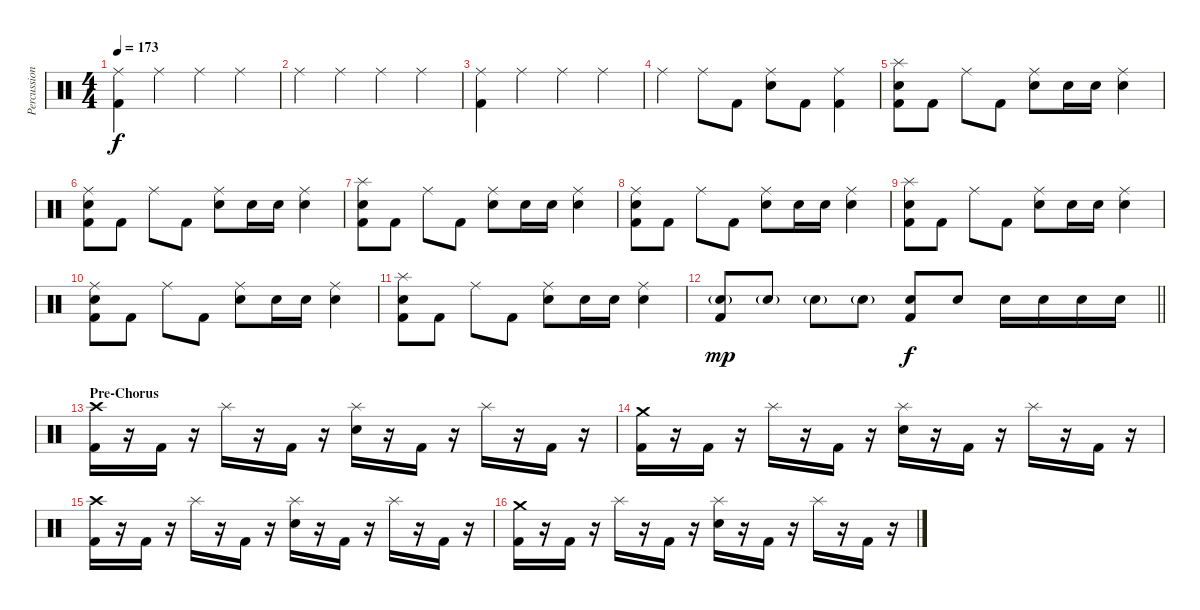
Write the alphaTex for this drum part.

\track ("Percussion" "Percussion") {instrument percussion}
\staff {score}
\articulation defaults
\ts (4 4)
\tempo 173
\clef neutral
\ks c
("Ride (middle)" "Kick (hit) 2").4{dy f} "Ride (middle)".4 "Ride (middle)".4 "Ride (middle)".4 |
"Ride (middle)".4 "Ride (middle)".4 "Ride (middle)".4 "Ride (middle)".4 |
("Ride (middle)" "Kick (hit) 2").4 "Ride (middle)".4 "Ride (middle)".4 "Ride (middle)".4 |
"Ride (middle)".4 "Ride (middle)".8 "Kick (hit) 2".8 ("Ride (middle)" "Electric Snare (hit)").8 "Kick (hit) 2".8 ("Ride (middle)" "Kick (hit) 2").4 |
("Splash (hit)" "Electric Snare (hit)" "Kick (hit) 2").8 "Kick (hit) 2".8 "Ride (middle)".8 "Kick (hit) 2".8 ("Ride (middle)" "Electric Snare (hit)").8 "Electric Snare (hit)".16 "Electric Snare (hit)".16 ("Ride (middle)" "Electric Snare (hit)").4 |
("Ride (middle)" "Electric Snare (hit)" "Kick (hit) 2").8 "Kick (hit) 2".8 "Ride (middle)".8 "Kick (hit) 2".8 ("Ride (middle)" "Electric Snare (hit)").8 "Electric Snare (hit)".16 "Electric Snare (hit)".16 ("Ride (middle)" "Electric Snare (hit)").4 |
("Splash (hit)" "Electric Snare (hit)" "Kick (hit) 2").8 "Kick (hit) 2".8 "Ride (middle)".8 "Kick (hit) 2".8 ("Ride (middle)" "Electric Snare (hit)").8 "Electric Snare (hit)".16 "Electric Snare (hit)".16 ("Ride (middle)" "Electric Snare (hit)").4 |
("Ride (middle)" "Electric Snare (hit)" "Kick (hit) 2").8 "Kick (hit) 2".8 "Ride (middle)".8 "Kick (hit) 2".8 ("Ride (middle)" "Electric Snare (hit)").8 "Electric Snare (hit)".16 "Electric Snare (hit)".16 ("Ride (middle)" "Electric Snare (hit)").4 |
("Splash (hit)" "Electric Snare (hit)" "Kick (hit) 2").8 "Kick (hit) 2".8 "Ride (middle)".8 "Kick (hit) 2".8 ("Ride (middle)" "Electric Snare (hit)").8 "Electric Snare (hit)".16 "Electric Snare (hit)".16 ("Ride (middle)" "Electric Snare (hit)").4 |
("Ride (middle)" "Electric Snare (hit)" "Kick (hit) 2").8 "Kick (hit) 2".8 "Ride (middle)".8 "Kick (hit) 2".8 ("Ride (middle)" "Electric Snare (hit)").8 "Electric Snare (hit)".16 "Electric Snare (hit)".16 ("Ride (middle)" "Electric Snare (hit)").4 |
("Splash (hit)" "Electric Snare (hit)" "Kick (hit) 2").8 "Kick (hit) 2".8 "Ride (middle)".8 "Kick (hit) 2".8 ("Ride (middle)" "Electric Snare (hit)").8 "Electric Snare (hit)".16 "Electric Snare (hit)".16 ("Ride (middle)" "Electric Snare (hit)").4 |
\barLineRight lightlight
("Electric Snare (hit)"{g} "Kick (hit) 2").8{dy mp} "Electric Snare (hit)"{g}.8 "Electric Snare (hit)"{g}.8 "Electric Snare (hit)"{g}.8 ("Electric Snare (hit)" "Kick (hit) 2").8{dy f} "Electric Snare (hit)".8 "Electric Snare (hit)".16 "Electric Snare (hit)".16 "Electric Snare (hit)".16 "Electric Snare (hit)".16 |
\section ("" "Pre-Chorus")
("Crash high (hit)" "Kick (hit) 2").16 r.16 "Kick (hit) 2".16 r.16 "Splash (hit)".16 r.16 "Kick (hit) 2".16 r.16 ("Splash (hit)" "Electric Snare (hit)").16 r.16 "Kick (hit) 2".16 r.16 "Splash (hit)".16 r.16 "Kick (hit) 2".16 r.16 |
("Crash medium (hit)" "Kick (hit) 2").16 r.16 "Kick (hit) 2".16 r.16 "Splash (hit)".16 r.16 "Kick (hit) 2".16 r.16 ("Splash (hit)" "Electric Snare (hit)").16 r.16 "Kick (hit) 2".16 r.16 "Splash (hit)".16 r.16 "Kick (hit) 2".16 r.16 |
("Crash high (hit)" "Kick (hit) 2").16 r.16 "Kick (hit) 2".16 r.16 "Splash (hit)".16 r.16 "Kick (hit) 2".16 r.16 ("Splash (hit)" "Electric Snare (hit)").16 r.16 "Kick (hit) 2".16 r.16 "Splash (hit)".16 r.16 "Kick (hit) 2".16 r.16 |
("Crash medium (hit)" "Kick (hit) 2").16 r.16 "Kick (hit) 2".16 r.16 "Splash (hit)".16 r.16 "Kick (hit) 2".16 r.16 ("Splash (hit)" "Electric Snare (hit)").16 r.16 "Kick (hit) 2".16 r.16 "Splash (hit)".16 r.16 "Kick (hit) 2".16 r.16
